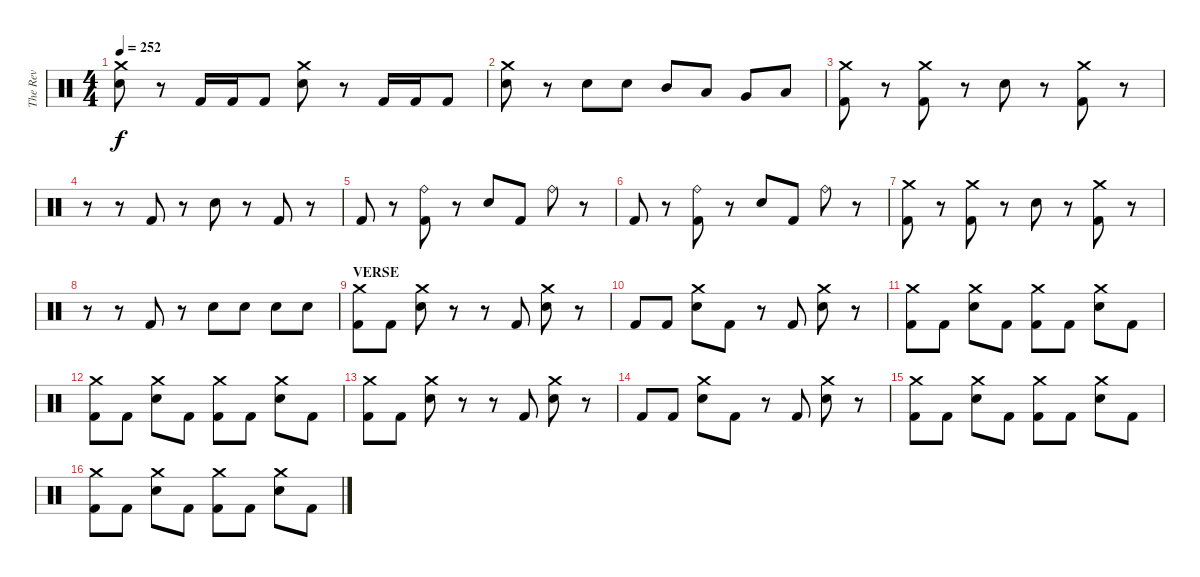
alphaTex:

\track ("The Rev" "The Rev") {instrument percussion}
\staff {score}
\articulation defaults
\ts (4 4)
\tempo 252
\clef neutral
\ks c
("Crash medium (hit)" "Electric Snare (hit)").8{dy f} r.8 "Kick (hit) 2".16 "Kick (hit) 2".16 "Kick (hit) 2".8 ("Crash medium (hit)" "Electric Snare (hit)").8 r.8 "Kick (hit) 2".16 "Kick (hit) 2".16 "Kick (hit) 2".8 |
("Crash medium (hit)" "Electric Snare (hit)").8 r.8 "Electric Snare (hit)".8 "Electric Snare (hit)".8 "Mid Tom (hit)".8 "Low Tom (hit)".8 "Very Low Tom (hit)".8 "Low Floor Tom (hit)".8 |
("Crash medium (hit)" "Kick (hit) 2").8 r.8 ("Crash medium (hit)" "Kick (hit) 2").8 r.8 "Electric Snare (hit)".8 r.8 ("Crash medium (hit)" "Kick (hit) 2").8 r.8 |
r.8 r.8 "Kick (hit) 2".8 r.8 "Electric Snare (hit)".8 r.8 "Kick (hit) 2".8 r.8 |
"Kick (hit) 2".8 r.8 ("Ride (bell)" "Kick (hit) 2").8 r.8 "Electric Snare (hit)".8 "Kick (hit) 2".8 "Ride (bell)".8 r.8 |
"Kick (hit) 2".8 r.8 ("Ride (bell)" "Kick (hit) 2").8 r.8 "Electric Snare (hit)".8 "Kick (hit) 2".8 "Ride (bell)".8 r.8 |
("Crash medium (hit)" "Kick (hit) 2").8 r.8 ("Crash medium (hit)" "Kick (hit) 2").8 r.8 "Electric Snare (hit)".8 r.8 ("Crash medium (hit)" "Kick (hit) 2").8 r.8 |
r.8 r.8 "Kick (hit) 2".8 r.8 "Electric Snare (hit)".8 "Electric Snare (hit)".8 "Electric Snare (hit)".8 "Electric Snare (hit)".8 |
\section ("" "VERSE")
("Crash medium (hit)" "Kick (hit) 2").8 "Kick (hit) 2".8 ("Crash medium (hit)" "Electric Snare (hit)").8 r.8 r.8 "Kick (hit) 2".8 ("Crash medium (hit)" "Electric Snare (hit)").8 r.8 |
"Kick (hit) 2".8 "Kick (hit) 2".8 ("Crash medium (hit)" "Electric Snare (hit)").8 "Kick (hit) 2".8 r.8 "Kick (hit) 2".8 ("Crash medium (hit)" "Electric Snare (hit)").8 r.8 |
("Crash medium (hit)" "Kick (hit) 2").8 "Kick (hit) 2".8 ("Crash medium (hit)" "Electric Snare (hit)").8 "Kick (hit) 2".8 ("Crash medium (hit)" "Kick (hit) 2").8 "Kick (hit) 2".8 ("Crash medium (hit)" "Electric Snare (hit)").8 "Kick (hit) 2".8 |
("Crash medium (hit)" "Kick (hit) 2").8 "Kick (hit) 2".8 ("Crash medium (hit)" "Electric Snare (hit)").8 "Kick (hit) 2".8 ("Crash medium (hit)" "Kick (hit) 2").8 "Kick (hit) 2".8 ("Crash medium (hit)" "Electric Snare (hit)").8 "Kick (hit) 2".8 |
("Crash medium (hit)" "Kick (hit) 2").8 "Kick (hit) 2".8 ("Crash medium (hit)" "Electric Snare (hit)").8 r.8 r.8 "Kick (hit) 2".8 ("Crash medium (hit)" "Electric Snare (hit)").8 r.8 |
"Kick (hit) 2".8 "Kick (hit) 2".8 ("Crash medium (hit)" "Electric Snare (hit)").8 "Kick (hit) 2".8 r.8 "Kick (hit) 2".8 ("Crash medium (hit)" "Electric Snare (hit)").8 r.8 |
("Crash medium (hit)" "Kick (hit) 2").8 "Kick (hit) 2".8 ("Crash medium (hit)" "Electric Snare (hit)").8 "Kick (hit) 2".8 ("Crash medium (hit)" "Kick (hit) 2").8 "Kick (hit) 2".8 ("Crash medium (hit)" "Electric Snare (hit)").8 "Kick (hit) 2".8 |
("Crash medium (hit)" "Kick (hit) 2").8 "Kick (hit) 2".8 ("Crash medium (hit)" "Electric Snare (hit)").8 "Kick (hit) 2".8 ("Crash medium (hit)" "Kick (hit) 2").8 "Kick (hit) 2".8 ("Crash medium (hit)" "Electric Snare (hit)").8 "Kick (hit) 2".8
